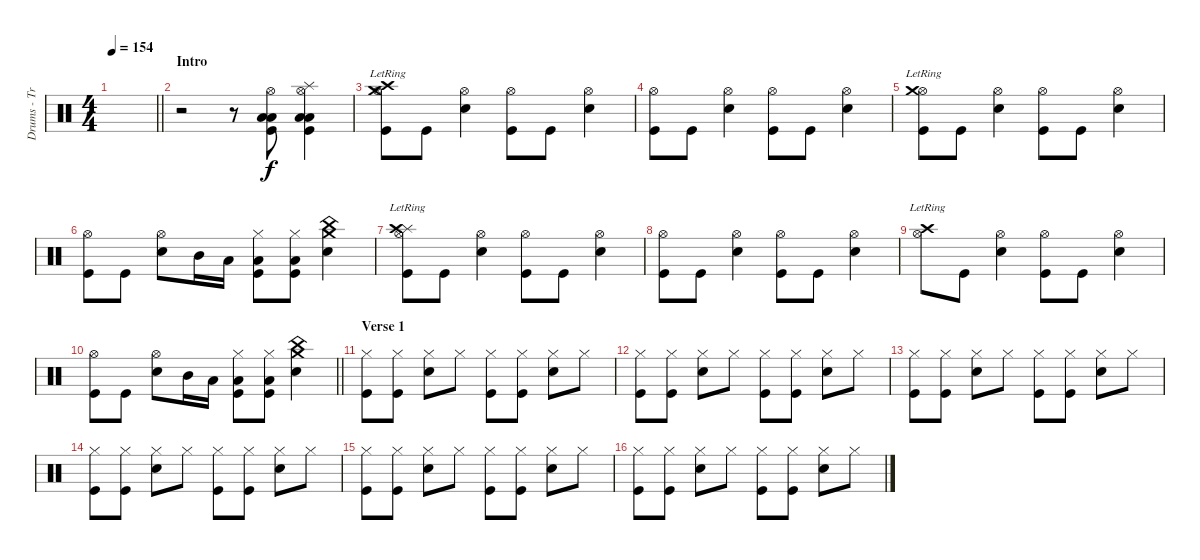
\track ("Drums - Travis" "Drums - Tr") {instrument percussion}
\staff {score}
\articulation defaults
\ts (4 4)
\tempo 154
\clef neutral
\barLineRight lightlight
\ks c
|
\section ("" "Intro")
r.2 r.8 ("Hi-Hat (open)" "Low Floor Tom (hit)" "Low Tom (hit)" "Kick (hit)").8 ("Hi-Hat (open)" "Low Floor Tom (hit)" "Low Tom (hit)" "Kick (hit)" "Splash (hit)").4 |
("Crash high (hit)"{lr} "Hi-Hat (open)" "Crash medium (hit)"{lr} "Kick (hit)").8 "Kick (hit)".8 ("Hi-Hat (open)" "Snare (hit) 2").4 ("Hi-Hat (open)" "Kick (hit)").8 "Kick (hit)".8 ("Hi-Hat (open)" "Snare (hit) 2").4 |
("Hi-Hat (open)" "Kick (hit)").8 "Kick (hit)".8 ("Hi-Hat (open)" "Snare (hit) 2").4 ("Hi-Hat (open)" "Kick (hit)").8 "Kick (hit)".8 ("Hi-Hat (open)" "Snare (hit) 2").4 |
("Hi-Hat (open)" "Crash medium (hit)"{lr} "Kick (hit)").8 "Kick (hit)".8 ("Hi-Hat (open)" "Snare (hit) 2").4 ("Hi-Hat (open)" "Kick (hit)").8 "Kick (hit)".8 ("Hi-Hat (open)" "Snare (hit) 2").4 |
("Hi-Hat (open)" "Kick (hit)").8 "Kick (hit)".8 ("Hi-Hat (open)" "Snare (hit) 2").8 "Mid Tom (hit)".16 "Low Tom (hit)".16 ("Hi-Hat (closed)" "Low Floor Tom (hit)" "Kick (hit)").8 ("Hi-Hat (closed)" "Low Floor Tom (hit)" "Kick (hit)").8 ("Crash medium (hit)" "China (hit)" "Snare (hit) 2").4 |
("Splash (hit)" "Hi-Hat (open)" "Crash high (hit)"{lr} "Kick (hit)").8 "Kick (hit)".8 ("Hi-Hat (open)" "Snare (hit) 2").4 ("Hi-Hat (open)" "Kick (hit)").8 "Kick (hit)".8 ("Hi-Hat (open)" "Snare (hit) 2").4 |
("Hi-Hat (open)" "Kick (hit)").8 "Kick (hit)".8 ("Hi-Hat (open)" "Snare (hit) 2").4 ("Hi-Hat (open)" "Kick (hit)").8 "Kick (hit)".8 ("Hi-Hat (open)" "Snare (hit) 2").4 |
("Crash high (hit)"{lr} "Hi-Hat (open)").8 "Kick (hit)".8 ("Hi-Hat (open)" "Snare (hit) 2").4 ("Hi-Hat (open)" "Kick (hit)").8 "Kick (hit)".8 ("Hi-Hat (open)" "Snare (hit) 2").4 |
\barLineRight lightlight
("Hi-Hat (open)" "Kick (hit)").8 "Kick (hit)".8 ("Hi-Hat (open)" "Snare (hit) 2").8 "Mid Tom (hit)".16 "Low Tom (hit)".16 ("Hi-Hat (closed)" "Low Floor Tom (hit)" "Kick (hit)").8 ("Hi-Hat (closed)" "Low Floor Tom (hit)" "Kick (hit)").8 ("Crash medium (hit)" "China (hit)" "Snare (hit) 2").4 |
\section ("" "Verse 1")
("Hi-Hat (closed)" "Kick (hit)").8 ("Hi-Hat (closed)" "Kick (hit)").8 ("Hi-Hat (closed)" "Snare (hit) 2").8 "Hi-Hat (closed)".8 ("Hi-Hat (closed)" "Kick (hit)").8 ("Hi-Hat (closed)" "Kick (hit)").8 ("Hi-Hat (closed)" "Snare (hit) 2").8 "Hi-Hat (closed)".8 |
("Hi-Hat (closed)" "Kick (hit)").8 ("Hi-Hat (closed)" "Kick (hit)").8 ("Hi-Hat (closed)" "Snare (hit) 2").8 "Hi-Hat (closed)".8 ("Hi-Hat (closed)" "Kick (hit)").8 ("Hi-Hat (closed)" "Kick (hit)").8 ("Hi-Hat (closed)" "Snare (hit) 2").8 "Hi-Hat (closed)".8 |
("Hi-Hat (closed)" "Kick (hit)").8 ("Hi-Hat (closed)" "Kick (hit)").8 ("Hi-Hat (closed)" "Snare (hit) 2").8 "Hi-Hat (closed)".8 ("Hi-Hat (closed)" "Kick (hit)").8 ("Hi-Hat (closed)" "Kick (hit)").8 ("Hi-Hat (closed)" "Snare (hit) 2").8 "Hi-Hat (closed)".8 |
("Hi-Hat (closed)" "Kick (hit)").8 ("Hi-Hat (closed)" "Kick (hit)").8 ("Hi-Hat (closed)" "Snare (hit) 2").8 "Hi-Hat (closed)".8 ("Hi-Hat (closed)" "Kick (hit)").8 ("Hi-Hat (closed)" "Kick (hit)").8 ("Hi-Hat (closed)" "Snare (hit) 2").8 "Hi-Hat (closed)".8 |
("Hi-Hat (closed)" "Kick (hit)").8 ("Hi-Hat (closed)" "Kick (hit)").8 ("Hi-Hat (closed)" "Snare (hit) 2").8 "Hi-Hat (closed)".8 ("Hi-Hat (closed)" "Kick (hit)").8 ("Hi-Hat (closed)" "Kick (hit)").8 ("Hi-Hat (closed)" "Snare (hit) 2").8 "Hi-Hat (closed)".8 |
("Hi-Hat (closed)" "Kick (hit)").8 ("Hi-Hat (closed)" "Kick (hit)").8 ("Hi-Hat (closed)" "Snare (hit) 2").8 "Hi-Hat (closed)".8 ("Hi-Hat (closed)" "Kick (hit)").8 ("Hi-Hat (closed)" "Kick (hit)").8 ("Hi-Hat (closed)" "Snare (hit) 2").8 "Hi-Hat (closed)".8
